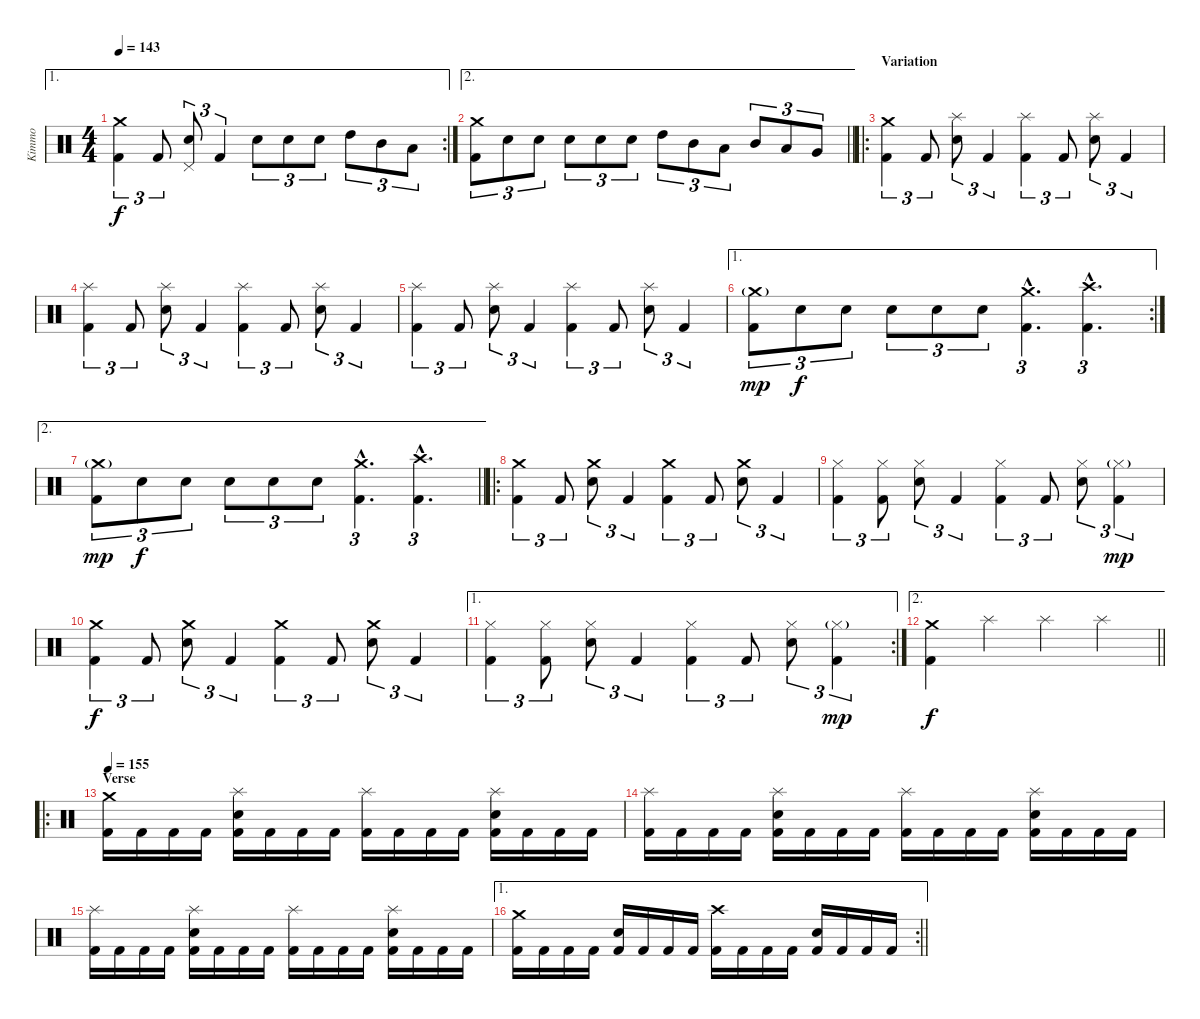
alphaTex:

\track ("Kimmo" "Kimmo") {instrument percussion}
\staff {score}
\articulation defaults
\ae 1
\rc 2
\ts (4 4)
\tempo 143
\clef neutral
\ks c
("Kick (hit) 2" "Crash medium (hit)").4{tu (3 2) dy f} "Kick (hit) 2".8{tu (3 2)} ("Snare (hit) 2" "Pedal Hi-Hat (hit)").8{tu (3 2)} "Kick (hit) 2".4{tu (3 2)} "Snare (hit) 2".8{tu (3 2)} "Snare (hit) 2".8{tu (3 2)} "Snare (hit) 2".8{tu (3 2)} "High Tom (hit)".8{tu (3 2)} "Mid Tom (hit)".8{tu (3 2)} "Low Tom (hit)".8{tu (3 2)} |
\ae 2
\barLineRight lightlight
("Kick (hit) 2" "Crash medium (hit)").8{tu (3 2)} "Snare (hit) 2".8{tu (3 2)} "Snare (hit) 2".8{tu (3 2)} "Snare (hit) 2".8{tu (3 2)} "Snare (hit) 2".8{tu (3 2)} "Snare (hit) 2".8{tu (3 2)} "High Tom (hit)".8{tu (3 2)} "Mid Tom (hit)".8{tu (3 2)} "Low Tom (hit)".8{tu (3 2)} "Mid Tom (hit)".8{tu (3 2)} "Low Tom (hit)".8{tu (3 2)} "Very Low Tom (hit)".8{tu (3 2)} |
\ro
\section ("" "Variation")
("Kick (hit) 2" "Crash medium (hit)").4{tu (3 2)} "Kick (hit) 2".8{tu (3 2)} ("Snare (hit) 2" "Splash (hit)").8{tu (3 2)} "Kick (hit) 2".4{tu (3 2)} ("Kick (hit) 2" "Splash (hit)").4{tu (3 2)} "Kick (hit) 2".8{tu (3 2)} ("Snare (hit) 2" "Splash (hit)").8{tu (3 2)} "Kick (hit) 2".4{tu (3 2)} |
("Kick (hit) 2" "Splash (hit)").4{tu (3 2)} "Kick (hit) 2".8{tu (3 2)} ("Snare (hit) 2" "Splash (hit)").8{tu (3 2)} "Kick (hit) 2".4{tu (3 2)} ("Kick (hit) 2" "Splash (hit)").4{tu (3 2)} "Kick (hit) 2".8{tu (3 2)} ("Snare (hit) 2" "Splash (hit)").8{tu (3 2)} "Kick (hit) 2".4{tu (3 2)} |
("Kick (hit) 2" "Splash (hit)").4{tu (3 2)} "Kick (hit) 2".8{tu (3 2)} ("Snare (hit) 2" "Splash (hit)").8{tu (3 2)} "Kick (hit) 2".4{tu (3 2)} ("Kick (hit) 2" "Splash (hit)").4{tu (3 2)} "Kick (hit) 2".8{tu (3 2)} ("Snare (hit) 2" "Splash (hit)").8{tu (3 2)} "Kick (hit) 2".4{tu (3 2)} |
\ae 1
\rc 2
("Kick (hit) 2" "Crash medium (hit)"{g}).8{tu (3 2) dy mp} "Snare (hit) 2".8{tu (3 2) dy f} "Snare (hit) 2".8{tu (3 2)} "Snare (hit) 2".8{tu (3 2)} "Snare (hit) 2".8{tu (3 2)} "Snare (hit) 2".8{tu (3 2)} ("Kick (hit) 2"{hac} "Crash medium (hit)"{hac}).4{d tu (3 2)} ("Kick (hit) 2"{hac} "Crash high (hit)"{hac}).4{d tu (3 2)} |
\ae 2
\barLineRight lightlight
("Kick (hit) 2" "Crash medium (hit)"{g}).8{tu (3 2) dy mp} "Snare (hit) 2".8{tu (3 2) dy f} "Snare (hit) 2".8{tu (3 2)} "Snare (hit) 2".8{tu (3 2)} "Snare (hit) 2".8{tu (3 2)} "Snare (hit) 2".8{tu (3 2)} ("Kick (hit) 2"{hac} "Crash medium (hit)"{hac}).4{d tu (3 2)} ("Kick (hit) 2"{hac} "Crash high (hit)"{hac}).4{d tu (3 2)} |
\ro
\section ("" "")
("Kick (hit) 2" "Crash medium (hit)").4{tu (3 2)} "Kick (hit) 2".8{tu (3 2)} ("Snare (hit) 2" "Crash medium (hit)").8{tu (3 2)} "Kick (hit) 2".4{tu (3 2)} ("Kick (hit) 2" "Crash medium (hit)").4{tu (3 2)} "Kick (hit) 2".8{tu (3 2)} ("Snare (hit) 2" "Crash medium (hit)").8{tu (3 2)} "Kick (hit) 2".4{tu (3 2)} |
("Kick (hit) 2" "Hi-Hat (closed)").4{tu (3 2)} ("Kick (hit) 2" "Hi-Hat (closed)").8{tu (3 2)} ("Snare (hit) 2" "Hi-Hat (closed)").8{tu (3 2)} "Kick (hit) 2".4{tu (3 2)} ("Kick (hit) 2" "Hi-Hat (closed)").4{tu (3 2)} "Kick (hit) 2".8{tu (3 2)} ("Snare (hit) 2" "Hi-Hat (closed)").8{tu (3 2)} ("Kick (hit) 2" "Hi-Hat (closed)"{g}).4{tu (3 2) dy mp} |
("Kick (hit) 2" "Crash medium (hit)").4{tu (3 2) dy f} "Kick (hit) 2".8{tu (3 2)} ("Snare (hit) 2" "Crash medium (hit)").8{tu (3 2)} "Kick (hit) 2".4{tu (3 2)} ("Kick (hit) 2" "Crash medium (hit)").4{tu (3 2)} "Kick (hit) 2".8{tu (3 2)} ("Snare (hit) 2" "Crash medium (hit)").8{tu (3 2)} "Kick (hit) 2".4{tu (3 2)} |
\ae 1
\rc 2
("Kick (hit) 2" "Hi-Hat (closed)").4{tu (3 2)} ("Kick (hit) 2" "Hi-Hat (closed)").8{tu (3 2)} ("Snare (hit) 2" "Hi-Hat (closed)").8{tu (3 2)} "Kick (hit) 2".4{tu (3 2)} ("Kick (hit) 2" "Hi-Hat (closed)").4{tu (3 2)} "Kick (hit) 2".8{tu (3 2)} ("Snare (hit) 2" "Hi-Hat (closed)").8{tu (3 2)} ("Kick (hit) 2" "Hi-Hat (closed)"{g}).4{tu (3 2) dy mp} |
\ae 2
\barLineRight lightlight
("Kick (hit) 2" "Crash medium (hit)").4{dy f} "Splash (hit)".4 "Splash (hit)".4 "Splash (hit)".4 |
\ro
\section ("" "Verse")
\tempo 155
("Kick (hit) 2" "Crash medium (hit)").16 "Kick (hit) 2".16 "Kick (hit) 2".16 "Kick (hit) 2".16 ("Kick (hit) 2" "Snare (hit) 2" "Splash (hit)").16 "Kick (hit) 2".16 "Kick (hit) 2".16 "Kick (hit) 2".16 ("Kick (hit) 2" "Splash (hit)").16 "Kick (hit) 2".16 "Kick (hit) 2".16 "Kick (hit) 2".16 ("Kick (hit) 2" "Snare (hit) 2" "Splash (hit)").16 "Kick (hit) 2".16 "Kick (hit) 2".16 "Kick (hit) 2".16 |
("Kick (hit) 2" "Splash (hit)").16 "Kick (hit) 2".16 "Kick (hit) 2".16 "Kick (hit) 2".16 ("Kick (hit) 2" "Snare (hit) 2" "Splash (hit)").16 "Kick (hit) 2".16 "Kick (hit) 2".16 "Kick (hit) 2".16 ("Kick (hit) 2" "Splash (hit)").16 "Kick (hit) 2".16 "Kick (hit) 2".16 "Kick (hit) 2".16 ("Kick (hit) 2" "Snare (hit) 2" "Splash (hit)").16 "Kick (hit) 2".16 "Kick (hit) 2".16 "Kick (hit) 2".16 |
("Kick (hit) 2" "Splash (hit)").16 "Kick (hit) 2".16 "Kick (hit) 2".16 "Kick (hit) 2".16 ("Kick (hit) 2" "Snare (hit) 2" "Splash (hit)").16 "Kick (hit) 2".16 "Kick (hit) 2".16 "Kick (hit) 2".16 ("Kick (hit) 2" "Splash (hit)").16 "Kick (hit) 2".16 "Kick (hit) 2".16 "Kick (hit) 2".16 ("Kick (hit) 2" "Snare (hit) 2" "Splash (hit)").16 "Kick (hit) 2".16 "Kick (hit) 2".16 "Kick (hit) 2".16 |
\ae 1
\rc 2
\barLineRight lightlight
("Kick (hit) 2" "Crash medium (hit)").16 "Kick (hit) 2".16 "Kick (hit) 2".16 "Kick (hit) 2".16 ("Kick (hit) 2" "Snare (hit) 2").16 "Kick (hit) 2".16 "Kick (hit) 2".16 "Kick (hit) 2".16 ("Kick (hit) 2" "Crash high (hit)").16 "Kick (hit) 2".16 "Kick (hit) 2".16 "Kick (hit) 2".16 ("Kick (hit) 2" "Snare (hit) 2").16 "Kick (hit) 2".16 "Kick (hit) 2".16 "Kick (hit) 2".16
